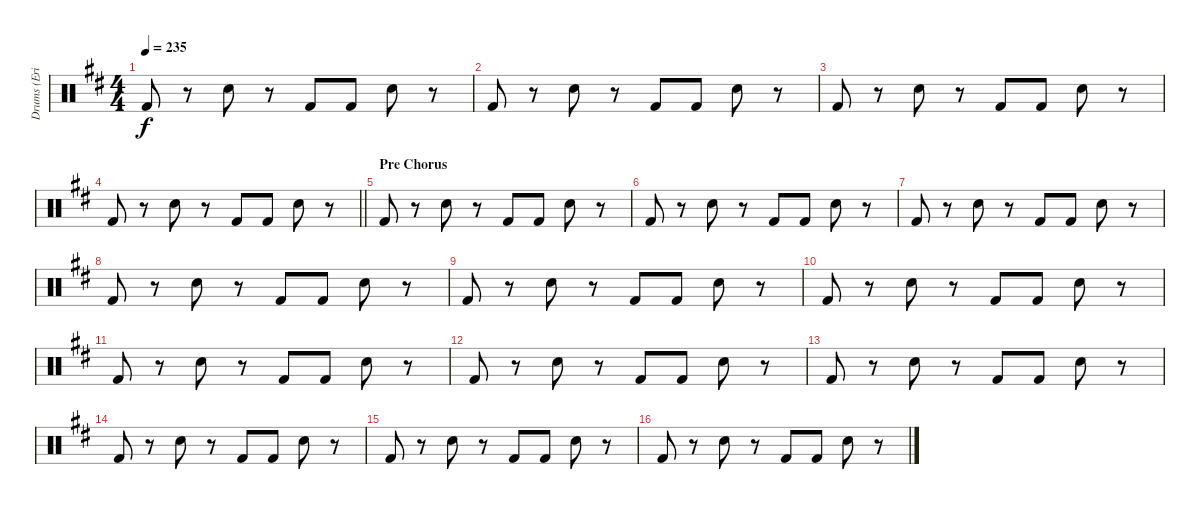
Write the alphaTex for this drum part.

\track ("Drums (Eric Carr)" "Drums (Eri") {instrument percussion}
\staff {score}
\articulation defaults
\ts (4 4)
\tempo 235
\clef neutral
\ks d "Kick (hit) 2".8{dy f}
r.8 "Snare (hit) 2".8 r.8 "Kick (hit) 2".8 "Kick (hit) 2".8 "Snare (hit) 2".8 r.8 |
"Kick (hit) 2".8 r.8 "Snare (hit) 2".8 r.8 "Kick (hit) 2".8 "Kick (hit) 2".8 "Snare (hit) 2".8 r.8 |
"Kick (hit) 2".8 r.8 "Snare (hit) 2".8 r.8 "Kick (hit) 2".8 "Kick (hit) 2".8 "Snare (hit) 2".8 r.8 |
\barLineRight lightlight "Kick (hit) 2".8
r.8 "Snare (hit) 2".8 r.8 "Kick (hit) 2".8 "Kick (hit) 2".8 "Snare (hit) 2".8 r.8 |
\section ("" "Pre Chorus")
"Kick (hit) 2".8 r.8 "Snare (hit) 2".8 r.8 "Kick (hit) 2".8 "Kick (hit) 2".8 "Snare (hit) 2".8 r.8 |
"Kick (hit) 2".8 r.8 "Snare (hit) 2".8 r.8 "Kick (hit) 2".8 "Kick (hit) 2".8 "Snare (hit) 2".8 r.8 |
"Kick (hit) 2".8 r.8 "Snare (hit) 2".8 r.8 "Kick (hit) 2".8 "Kick (hit) 2".8 "Snare (hit) 2".8 r.8 |
"Kick (hit) 2".8 r.8 "Snare (hit) 2".8 r.8 "Kick (hit) 2".8 "Kick (hit) 2".8 "Snare (hit) 2".8 r.8 |
"Kick (hit) 2".8 r.8 "Snare (hit) 2".8 r.8 "Kick (hit) 2".8 "Kick (hit) 2".8 "Snare (hit) 2".8 r.8 |
"Kick (hit) 2".8 r.8 "Snare (hit) 2".8 r.8 "Kick (hit) 2".8 "Kick (hit) 2".8 "Snare (hit) 2".8 r.8 |
"Kick (hit) 2".8 r.8 "Snare (hit) 2".8 r.8 "Kick (hit) 2".8 "Kick (hit) 2".8 "Snare (hit) 2".8 r.8 |
"Kick (hit) 2".8 r.8 "Snare (hit) 2".8 r.8 "Kick (hit) 2".8 "Kick (hit) 2".8 "Snare (hit) 2".8 r.8 |
"Kick (hit) 2".8 r.8 "Snare (hit) 2".8 r.8 "Kick (hit) 2".8 "Kick (hit) 2".8 "Snare (hit) 2".8 r.8 |
"Kick (hit) 2".8 r.8 "Snare (hit) 2".8 r.8 "Kick (hit) 2".8 "Kick (hit) 2".8 "Snare (hit) 2".8 r.8 |
"Kick (hit) 2".8 r.8 "Snare (hit) 2".8 r.8 "Kick (hit) 2".8 "Kick (hit) 2".8 "Snare (hit) 2".8 r.8 |
"Kick (hit) 2".8 r.8 "Snare (hit) 2".8 r.8 "Kick (hit) 2".8 "Kick (hit) 2".8 "Snare (hit) 2".8 r.8
